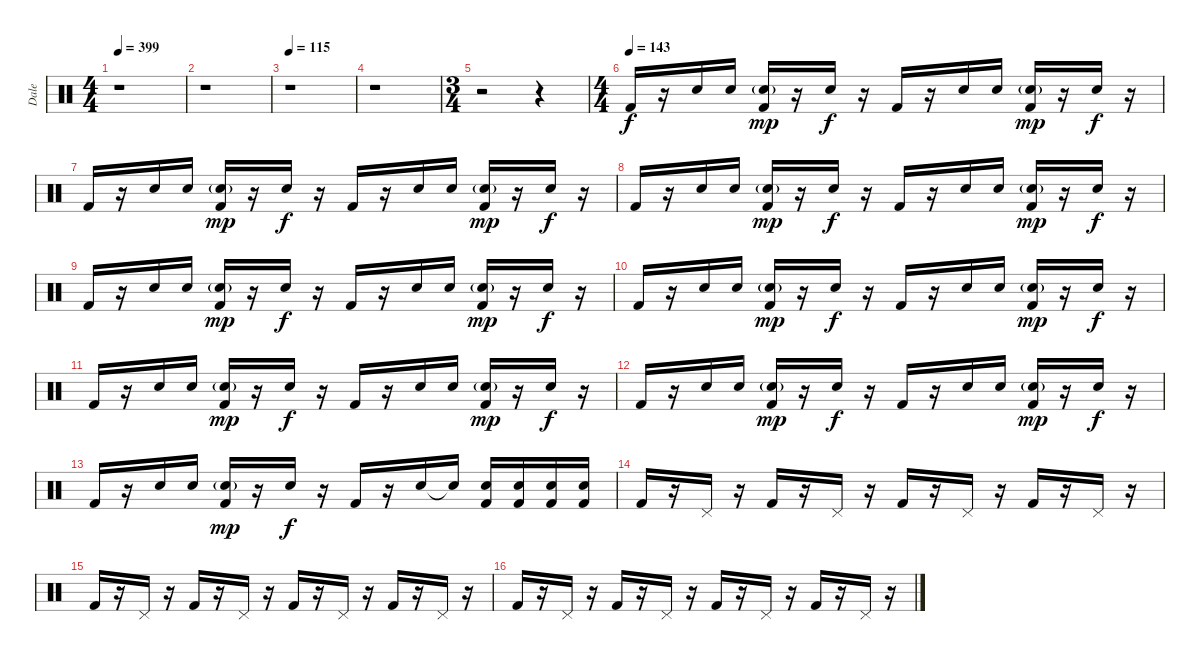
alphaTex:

\track ("Dale" "Dale") {instrument percussion}
\staff {score}
\articulation defaults
\ts (4 4)
\tempo 399
\clef neutral
\ks c
r.1{dy f} |
r.1 |
\tempo 115
r.1 |
r.1 |
\ts (3 4)
r.2 r.4 |
\ts (4 4)
\tempo (143)
"Kick (hit) 2".16 r.16 "Snare (hit) 2".16 "Snare (hit) 2".16 ("Kick (hit) 2" "Snare (hit) 2"{g}).16{dy mp} r.16 "Snare (hit) 2".16{dy f} r.16 "Kick (hit) 2".16 r.16 "Snare (hit) 2".16 "Snare (hit) 2".16 ("Kick (hit) 2" "Snare (hit) 2"{g}).16{dy mp} r.16 "Snare (hit) 2".16{dy f} r.16 |
"Kick (hit) 2".16 r.16 "Snare (hit) 2".16 "Snare (hit) 2".16 ("Kick (hit) 2" "Snare (hit) 2"{g}).16{dy mp} r.16 "Snare (hit) 2".16{dy f} r.16 "Kick (hit) 2".16 r.16 "Snare (hit) 2".16 "Snare (hit) 2".16 ("Kick (hit) 2" "Snare (hit) 2"{g}).16{dy mp} r.16 "Snare (hit) 2".16{dy f} r.16 |
"Kick (hit) 2".16 r.16 "Snare (hit) 2".16 "Snare (hit) 2".16 ("Kick (hit) 2" "Snare (hit) 2"{g}).16{dy mp} r.16 "Snare (hit) 2".16{dy f} r.16 "Kick (hit) 2".16 r.16 "Snare (hit) 2".16 "Snare (hit) 2".16 ("Kick (hit) 2" "Snare (hit) 2"{g}).16{dy mp} r.16 "Snare (hit) 2".16{dy f} r.16 |
"Kick (hit) 2".16 r.16 "Snare (hit) 2".16 "Snare (hit) 2".16 ("Kick (hit) 2" "Snare (hit) 2"{g}).16{dy mp} r.16 "Snare (hit) 2".16{dy f} r.16 "Kick (hit) 2".16 r.16 "Snare (hit) 2".16 "Snare (hit) 2".16 ("Kick (hit) 2" "Snare (hit) 2"{g}).16{dy mp} r.16 "Snare (hit) 2".16{dy f} r.16 |
"Kick (hit) 2".16 r.16 "Snare (hit) 2".16 "Snare (hit) 2".16 ("Kick (hit) 2" "Snare (hit) 2"{g}).16{dy mp} r.16 "Snare (hit) 2".16{dy f} r.16 "Kick (hit) 2".16 r.16 "Snare (hit) 2".16 "Snare (hit) 2".16 ("Kick (hit) 2" "Snare (hit) 2"{g}).16{dy mp} r.16 "Snare (hit) 2".16{dy f} r.16 |
"Kick (hit) 2".16 r.16 "Snare (hit) 2".16 "Snare (hit) 2".16 ("Kick (hit) 2" "Snare (hit) 2"{g}).16{dy mp} r.16 "Snare (hit) 2".16{dy f} r.16 "Kick (hit) 2".16 r.16 "Snare (hit) 2".16 "Snare (hit) 2".16 ("Kick (hit) 2" "Snare (hit) 2"{g}).16{dy mp} r.16 "Snare (hit) 2".16{dy f} r.16 |
"Kick (hit) 2".16 r.16 "Snare (hit) 2".16 "Snare (hit) 2".16 ("Kick (hit) 2" "Snare (hit) 2"{g}).16{dy mp} r.16 "Snare (hit) 2".16{dy f} r.16 "Kick (hit) 2".16 r.16 "Snare (hit) 2".16 "Snare (hit) 2".16 ("Kick (hit) 2" "Snare (hit) 2"{g}).16{dy mp} r.16 "Snare (hit) 2".16{dy f} r.16 |
"Kick (hit) 2".16 r.16 "Snare (hit) 2".16 "Snare (hit) 2".16 ("Kick (hit) 2" "Snare (hit) 2"{g}).16{dy mp} r.16 "Snare (hit) 2".16{dy f} r.16 "Kick (hit) 2".16 r.16 "Snare (hit) 2".16 "Snare (hit)"{t}.16 ("Kick (hit) 2" "Snare (hit) 2").16 ("Kick (hit) 2" "Snare (hit) 2").16 ("Kick (hit) 2" "Snare (hit) 2").16 ("Kick (hit) 2" "Snare (hit) 2").16 |
"Kick (hit) 2".16 r.16 "Pedal Hi-Hat (hit)".16 r.16 "Kick (hit) 2".16 r.16 "Pedal Hi-Hat (hit)".16 r.16 "Kick (hit) 2".16 r.16 "Pedal Hi-Hat (hit)".16 r.16 "Kick (hit) 2".16 r.16 "Pedal Hi-Hat (hit)".16 r.16 |
"Kick (hit) 2".16 r.16 "Pedal Hi-Hat (hit)".16 r.16 "Kick (hit) 2".16 r.16 "Pedal Hi-Hat (hit)".16 r.16 "Kick (hit) 2".16 r.16 "Pedal Hi-Hat (hit)".16 r.16 "Kick (hit) 2".16 r.16 "Pedal Hi-Hat (hit)".16 r.16 |
"Kick (hit) 2".16 r.16 "Pedal Hi-Hat (hit)".16 r.16 "Kick (hit) 2".16 r.16 "Pedal Hi-Hat (hit)".16 r.16 "Kick (hit) 2".16 r.16 "Pedal Hi-Hat (hit)".16 r.16 "Kick (hit) 2".16 r.16 "Pedal Hi-Hat (hit)".16 r.16
